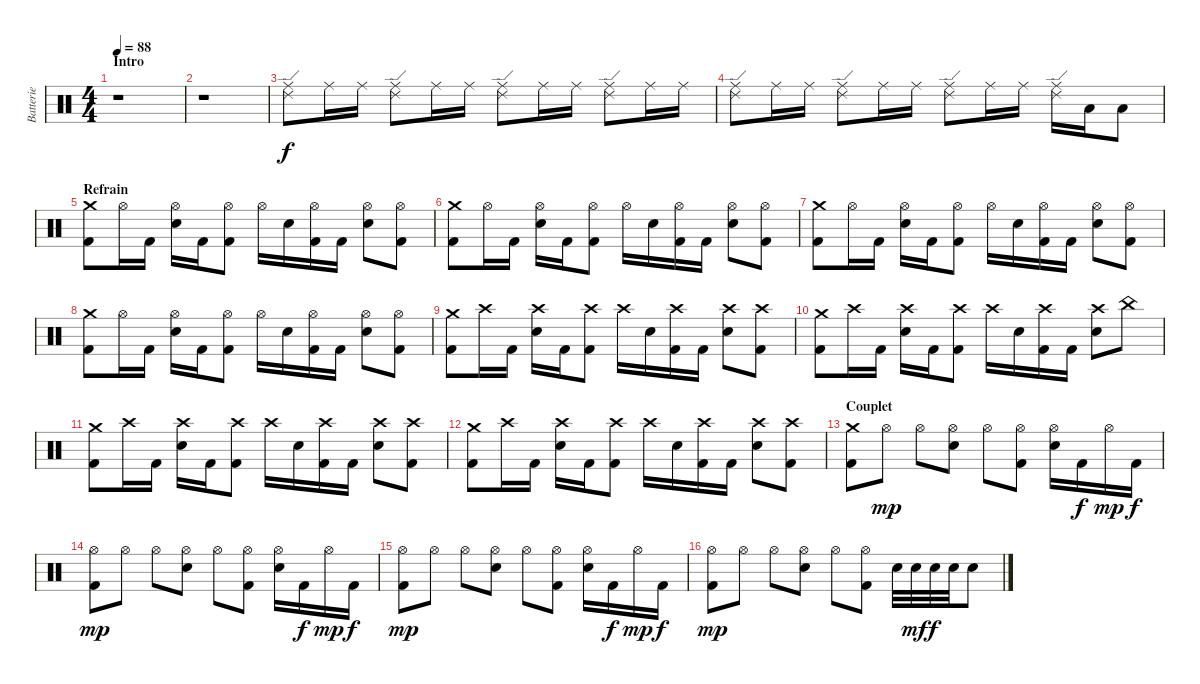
\track ("Batterie" "Batterie") {instrument percussion}
\staff {score}
\articulation defaults
\ts (4 4)
\section ("" "Intro")
\tempo 88
\clef neutral
\ks c
r.1{dy f} |
r.1 |
("Ride (edge) 2" "Ride (middle)").8 "Ride (middle)".16 "Ride (middle)".16 ("Ride (edge) 2" "Ride (middle)").8 "Ride (middle)".16 "Ride (middle)".16 ("Ride (edge) 2" "Ride (middle)").8 "Ride (middle)".16 "Ride (middle)".16 ("Ride (edge) 2" "Ride (middle)").8 "Ride (middle)".16 "Ride (middle)".16 |
("Ride (edge) 2" "Ride (middle)").8 "Ride (middle)".16 "Ride (middle)".16 ("Ride (edge) 2" "Ride (middle)").8 "Ride (middle)".16 "Ride (middle)".16 ("Ride (edge) 2" "Ride (middle)").8 "Ride (middle)".16 "Ride (middle)".16 ("Ride (edge) 2" "Ride (middle)").16 "Low Tom (hit)".16 "Low Tom (hit)".8 |
\section ("" "Refrain")
("Crash medium (hit)" "Kick (hit) 2").8 "Hi-Hat (open)".16 "Kick (hit) 2".16 ("Hi-Hat (open)" "Electric Snare (hit)").16 "Kick (hit) 2".16 ("Hi-Hat (open)" "Kick (hit) 2").8 "Hi-Hat (open)".16 "Electric Snare (hit)".16 ("Hi-Hat (open)" "Kick (hit) 2").16 "Kick (hit) 2".16 ("Hi-Hat (open)" "Electric Snare (hit)").8 ("Hi-Hat (open)" "Kick (hit) 2").8 |
("Crash medium (hit)" "Kick (hit) 2").8 "Hi-Hat (open)".16 "Kick (hit) 2".16 ("Hi-Hat (open)" "Electric Snare (hit)").16 "Kick (hit) 2".16 ("Hi-Hat (open)" "Kick (hit) 2").8 "Hi-Hat (open)".16 "Electric Snare (hit)".16 ("Hi-Hat (open)" "Kick (hit) 2").16 "Kick (hit) 2".16 ("Hi-Hat (open)" "Electric Snare (hit)").8 ("Hi-Hat (open)" "Kick (hit) 2").8 |
("Crash medium (hit)" "Kick (hit) 2").8 "Hi-Hat (open)".16 "Kick (hit) 2".16 ("Hi-Hat (open)" "Electric Snare (hit)").16 "Kick (hit) 2".16 ("Hi-Hat (open)" "Kick (hit) 2").8 "Hi-Hat (open)".16 "Electric Snare (hit)".16 ("Hi-Hat (open)" "Kick (hit) 2").16 "Kick (hit) 2".16 ("Hi-Hat (open)" "Electric Snare (hit)").8 ("Hi-Hat (open)" "Kick (hit) 2").8 |
("Crash medium (hit)" "Kick (hit) 2").8 "Hi-Hat (open)".16 "Kick (hit) 2".16 ("Hi-Hat (open)" "Electric Snare (hit)").16 "Kick (hit) 2".16 ("Hi-Hat (open)" "Kick (hit) 2").8 "Hi-Hat (open)".16 "Electric Snare (hit)".16 ("Hi-Hat (open)" "Kick (hit) 2").16 "Kick (hit) 2".16 ("Hi-Hat (open)" "Electric Snare (hit)").8 ("Hi-Hat (open)" "Kick (hit) 2").8 |
("Crash medium (hit)" "Kick (hit) 2").8 "Crash high (hit)".16 "Kick (hit) 2".16 ("Crash high (hit)" "Electric Snare (hit)").16 "Kick (hit) 2".16 ("Crash high (hit)" "Kick (hit) 2").8 "Crash high (hit)".16 "Electric Snare (hit)".16 ("Crash high (hit)" "Kick (hit) 2").16 "Kick (hit) 2".16 ("Crash high (hit)" "Electric Snare (hit)").8 ("Crash high (hit)" "Kick (hit) 2").8 |
("Crash medium (hit)" "Kick (hit) 2").8 "Crash high (hit)".16 "Kick (hit) 2".16 ("Crash high (hit)" "Electric Snare (hit)").16 "Kick (hit) 2".16 ("Crash high (hit)" "Kick (hit) 2").8 "Crash high (hit)".16 "Electric Snare (hit)".16 ("Crash high (hit)" "Kick (hit) 2").16 "Kick (hit) 2".16 ("Crash high (hit)" "Electric Snare (hit)").8 "China (hit)".8 |
("Crash medium (hit)" "Kick (hit) 2").8 "Crash high (hit)".16 "Kick (hit) 2".16 ("Crash high (hit)" "Electric Snare (hit)").16 "Kick (hit) 2".16 ("Crash high (hit)" "Kick (hit) 2").8 "Crash high (hit)".16 "Electric Snare (hit)".16 ("Crash high (hit)" "Kick (hit) 2").16 "Kick (hit) 2".16 ("Crash high (hit)" "Electric Snare (hit)").8 ("Crash high (hit)" "Kick (hit) 2").8 |
("Crash medium (hit)" "Kick (hit) 2").8 "Crash high (hit)".16 "Kick (hit) 2".16 ("Crash high (hit)" "Electric Snare (hit)").16 "Kick (hit) 2".16 ("Crash high (hit)" "Kick (hit) 2").8 "Crash high (hit)".16 "Electric Snare (hit)".16 ("Crash high (hit)" "Kick (hit) 2").16 "Kick (hit) 2".16 ("Crash high (hit)" "Electric Snare (hit)").8 ("Crash high (hit)" "Kick (hit) 2").8 |
\section ("" "Couplet")
("Crash medium (hit)" "Kick (hit) 2").8 "Hi-Hat (open)".8{dy mp} "Hi-Hat (open)".8 ("Hi-Hat (open)" "Electric Snare (hit)").8 "Hi-Hat (open)".8 ("Hi-Hat (open)" "Kick (hit) 2").8 ("Hi-Hat (open)" "Electric Snare (hit)").16 "Kick (hit) 2".16{dy f} "Hi-Hat (open)".16{dy mp} "Kick (hit) 2".16{dy f} |
("Hi-Hat (open)" "Kick (hit) 2").8{dy mp} "Hi-Hat (open)".8 "Hi-Hat (open)".8 ("Hi-Hat (open)" "Electric Snare (hit)").8 "Hi-Hat (open)".8 ("Hi-Hat (open)" "Kick (hit) 2").8 ("Hi-Hat (open)" "Electric Snare (hit)").16 "Kick (hit) 2".16{dy f} "Hi-Hat (open)".16{dy mp} "Kick (hit) 2".16{dy f} |
("Hi-Hat (open)" "Kick (hit) 2").8{dy mp} "Hi-Hat (open)".8 "Hi-Hat (open)".8 ("Hi-Hat (open)" "Electric Snare (hit)").8 "Hi-Hat (open)".8 ("Hi-Hat (open)" "Kick (hit) 2").8 ("Hi-Hat (open)" "Electric Snare (hit)").16 "Kick (hit) 2".16{dy f} "Hi-Hat (open)".16{dy mp} "Kick (hit) 2".16{dy f} |
("Hi-Hat (open)" "Kick (hit) 2").8{dy mp} "Hi-Hat (open)".8 "Hi-Hat (open)".8 ("Hi-Hat (open)" "Electric Snare (hit)").8 "Hi-Hat (open)".8 ("Hi-Hat (open)" "Kick (hit) 2").8 "Electric Snare (hit)".32 "Electric Snare (hit)".32{dy mf} "Electric Snare (hit)".32{dy f} "Electric Snare (hit)".32 "Electric Snare (hit)".8
